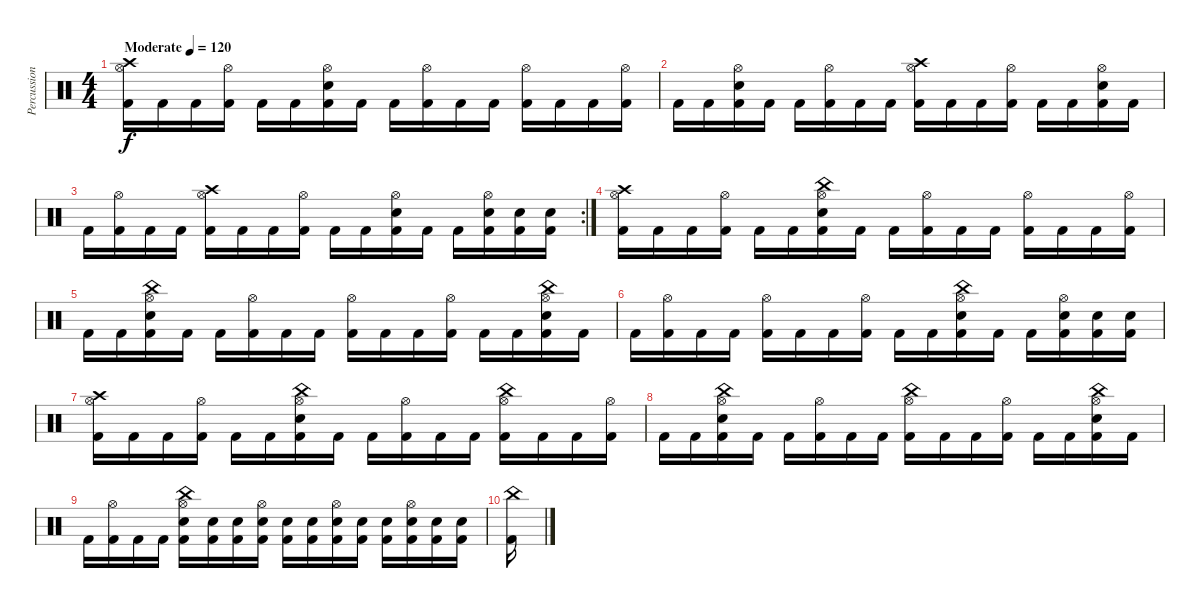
\track ("Percussion" "Percussion") {instrument percussion}
\staff {score}
\articulation defaults
\ts (4 4)
\tempo (120 "Moderate")
\clef neutral
\ks c
("Crash high (hit)" "Hi-Hat (open)" "Kick (hit) 2").16{dy f} "Kick (hit) 2".16 "Kick (hit) 2".16 ("Hi-Hat (open)" "Kick (hit) 2").16 "Kick (hit) 2".16 "Kick (hit) 2".16 ("Electric Snare (hit)" "Hi-Hat (open)" "Kick (hit) 2").16 "Kick (hit) 2".16 "Kick (hit) 2".16 ("Hi-Hat (open)" "Kick (hit) 2").16 "Kick (hit) 2".16 "Kick (hit) 2".16 ("Hi-Hat (open)" "Kick (hit) 2").16 "Kick (hit) 2".16 "Kick (hit) 2".16 ("Hi-Hat (open)" "Kick (hit) 2").16 |
"Kick (hit) 2".16 "Kick (hit) 2".16 ("Electric Snare (hit)" "Hi-Hat (open)" "Kick (hit) 2").16 "Kick (hit) 2".16 "Kick (hit) 2".16 ("Hi-Hat (open)" "Kick (hit) 2").16 "Kick (hit) 2".16 "Kick (hit) 2".16 ("Crash high (hit)" "Hi-Hat (open)" "Kick (hit) 2").16 "Kick (hit) 2".16 "Kick (hit) 2".16 ("Hi-Hat (open)" "Kick (hit) 2").16 "Kick (hit) 2".16 "Kick (hit) 2".16 ("Electric Snare (hit)" "Hi-Hat (open)" "Kick (hit) 2").16 "Kick (hit) 2".16 |
\rc 2 "Kick (hit) 2".16
("Hi-Hat (open)" "Kick (hit) 2").16 "Kick (hit) 2".16 "Kick (hit) 2".16 ("Crash high (hit)" "Hi-Hat (open)" "Kick (hit) 2").16 "Kick (hit) 2".16 "Kick (hit) 2".16 ("Hi-Hat (open)" "Kick (hit) 2").16 "Kick (hit) 2".16 "Kick (hit) 2".16 ("Electric Snare (hit)" "Hi-Hat (open)" "Kick (hit) 2").16 "Kick (hit) 2".16 "Kick (hit) 2".16 ("Electric Snare (hit)" "Hi-Hat (open)" "Kick (hit) 2").16 ("Electric Snare (hit)" "Kick (hit) 2").16 ("Electric Snare (hit)" "Kick (hit) 2").16 |
("Crash high (hit)" "Hi-Hat (open)" "Kick (hit) 2").16 "Kick (hit) 2".16 "Kick (hit) 2".16 ("Hi-Hat (open)" "Kick (hit) 2").16 "Kick (hit) 2".16 "Kick (hit) 2".16 ("China (hit)" "Electric Snare (hit)" "Hi-Hat (open)" "Kick (hit) 2").16 "Kick (hit) 2".16 "Kick (hit) 2".16 ("Hi-Hat (open)" "Kick (hit) 2").16 "Kick (hit) 2".16 "Kick (hit) 2".16 ("Hi-Hat (open)" "Kick (hit) 2").16 "Kick (hit) 2".16 "Kick (hit) 2".16 ("Hi-Hat (open)" "Kick (hit) 2").16 |
"Kick (hit) 2".16 "Kick (hit) 2".16 ("China (hit)" "Electric Snare (hit)" "Hi-Hat (open)" "Kick (hit) 2").16 "Kick (hit) 2".16 "Kick (hit) 2".16 ("Hi-Hat (open)" "Kick (hit) 2").16 "Kick (hit) 2".16 "Kick (hit) 2".16 ("Hi-Hat (open)" "Kick (hit) 2").16 "Kick (hit) 2".16 "Kick (hit) 2".16 ("Hi-Hat (open)" "Kick (hit) 2").16 "Kick (hit) 2".16 "Kick (hit) 2".16 ("China (hit)" "Electric Snare (hit)" "Hi-Hat (open)" "Kick (hit) 2").16 "Kick (hit) 2".16 |
"Kick (hit) 2".16 ("Hi-Hat (open)" "Kick (hit) 2").16 "Kick (hit) 2".16 "Kick (hit) 2".16 ("Hi-Hat (open)" "Kick (hit) 2").16 "Kick (hit) 2".16 "Kick (hit) 2".16 ("Hi-Hat (open)" "Kick (hit) 2").16 "Kick (hit) 2".16 "Kick (hit) 2".16 ("China (hit)" "Electric Snare (hit)" "Hi-Hat (open)" "Kick (hit) 2").16 "Kick (hit) 2".16 "Kick (hit) 2".16 ("Electric Snare (hit)" "Hi-Hat (open)" "Kick (hit) 2").16 ("Electric Snare (hit)" "Kick (hit) 2").16 ("Electric Snare (hit)" "Kick (hit) 2").16 |
("Crash high (hit)" "Hi-Hat (open)" "Kick (hit) 2").16 "Kick (hit) 2".16 "Kick (hit) 2".16 ("Hi-Hat (open)" "Kick (hit) 2").16 "Kick (hit) 2".16 "Kick (hit) 2".16 ("China (hit)" "Electric Snare (hit)" "Hi-Hat (open)" "Kick (hit) 2").16 "Kick (hit) 2".16 "Kick (hit) 2".16 ("Hi-Hat (open)" "Kick (hit) 2").16 "Kick (hit) 2".16 "Kick (hit) 2".16 ("China (hit)" "Hi-Hat (open)" "Kick (hit) 2").16 "Kick (hit) 2".16 "Kick (hit) 2".16 ("Hi-Hat (open)" "Kick (hit) 2").16 |
"Kick (hit) 2".16 "Kick (hit) 2".16 ("China (hit)" "Electric Snare (hit)" "Hi-Hat (open)" "Kick (hit) 2").16 "Kick (hit) 2".16 "Kick (hit) 2".16 ("Hi-Hat (open)" "Kick (hit) 2").16 "Kick (hit) 2".16 "Kick (hit) 2".16 ("China (hit)" "Hi-Hat (open)" "Kick (hit) 2").16 "Kick (hit) 2".16 "Kick (hit) 2".16 ("Hi-Hat (open)" "Kick (hit) 2").16 "Kick (hit) 2".16 "Kick (hit) 2".16 ("China (hit)" "Electric Snare (hit)" "Hi-Hat (open)" "Kick (hit) 2").16 "Kick (hit) 2".16 |
"Kick (hit) 2".16 ("Hi-Hat (open)" "Kick (hit) 2").16 "Kick (hit) 2".16 "Kick (hit) 2".16 ("China (hit)" "Electric Snare (hit)" "Hi-Hat (open)" "Kick (hit) 2").16 ("Electric Snare (hit)" "Kick (hit) 2").16 ("Electric Snare (hit)" "Kick (hit) 2").16 ("Electric Snare (hit)" "Hi-Hat (open)" "Kick (hit) 2").16 ("Electric Snare (hit)" "Kick (hit) 2").16 ("Electric Snare (hit)" "Kick (hit) 2").16 ("Electric Snare (hit)" "Hi-Hat (open)" "Kick (hit) 2").16 ("Electric Snare (hit)" "Kick (hit) 2").16 ("Electric Snare (hit)" "Kick (hit) 2").16 ("Electric Snare (hit)" "Hi-Hat (open)" "Kick (hit) 2").16 ("Electric Snare (hit)" "Kick (hit) 2").16 ("Electric Snare (hit)" "Kick (hit) 2").16 |
("China (hit)" "Kick (hit) 2").16
